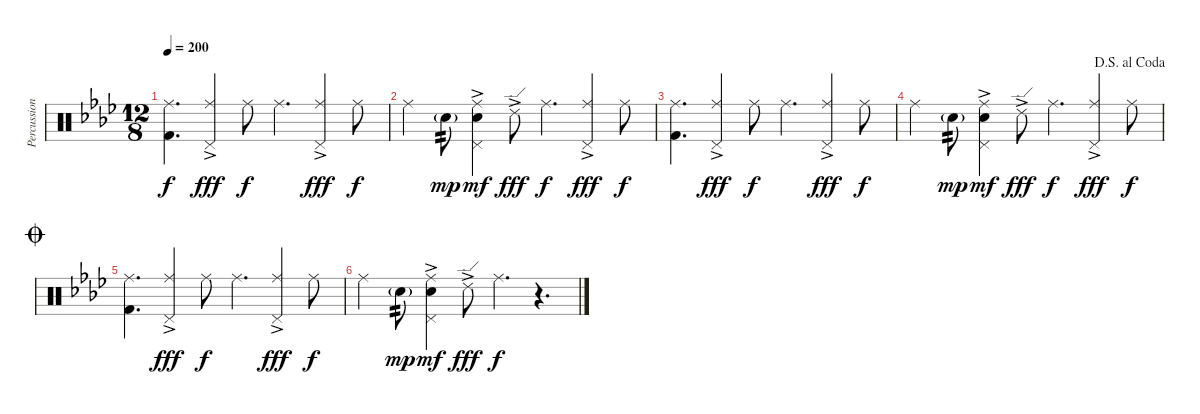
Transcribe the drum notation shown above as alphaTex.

\track ("Percussion" "Percussion") {instrument percussion}
\staff {score}
\articulation defaults
\ts (12 8)
\tempo 200
\clef neutral
\ks fminor
("Ride (middle)" "Kick (hit) 2").4{d dy f volume 12 balance 8} ("Ride (middle)" "Pedal Hi-Hat (hit)"{ac}).4{dy fff} "Ride (middle)".8{dy f} "Ride (middle)".4{d} ("Ride (middle)" "Pedal Hi-Hat (hit)"{ac}).4{dy fff} "Ride (middle)".8{dy f} |
"Ride (middle)".4 "Snare (hit) 2"{g}.8{tp 2 dy mp} ("Ride (middle)" "Pedal Hi-Hat (hit)"{ac} "Snare (hit) 2").4{dy mf} "Ride (edge) 2"{ac}.8{dy fff} "Ride (middle)".4{d dy f} ("Ride (middle)" "Pedal Hi-Hat (hit)"{ac}).4{dy fff} "Ride (middle)".8{dy f} |
("Ride (middle)" "Kick (hit) 2").4{d volume 12 balance 8} ("Ride (middle)" "Pedal Hi-Hat (hit)"{ac}).4{dy fff} "Ride (middle)".8{dy f} "Ride (middle)".4{d} ("Ride (middle)" "Pedal Hi-Hat (hit)"{ac}).4{dy fff} "Ride (middle)".8{dy f} |
\jump dalsegnoalcoda "Ride (middle)".4 "Snare (hit) 2"{g}.8{tp 2 dy mp}
("Ride (middle)" "Pedal Hi-Hat (hit)"{ac} "Snare (hit) 2").4{dy mf} "Ride (edge) 2"{ac}.8{dy fff} "Ride (middle)".4{d dy f} ("Ride (middle)" "Pedal Hi-Hat (hit)"{ac}).4{dy fff} "Ride (middle)".8{dy f} |
\jump coda
("Ride (middle)" "Kick (hit) 2").4{d volume 12 balance 8} ("Ride (middle)" "Pedal Hi-Hat (hit)"{ac}).4{dy fff} "Ride (middle)".8{dy f} "Ride (middle)".4{d} ("Ride (middle)" "Pedal Hi-Hat (hit)"{ac}).4{dy fff} "Ride (middle)".8{dy f} |
"Ride (middle)".4 "Snare (hit) 2"{g}.8{tp 2 dy mp} ("Ride (middle)" "Pedal Hi-Hat (hit)"{ac} "Snare (hit) 2").4{dy mf} "Ride (edge) 2"{ac}.8{dy fff} "Ride (middle)".4{d dy f} r.4{d}
